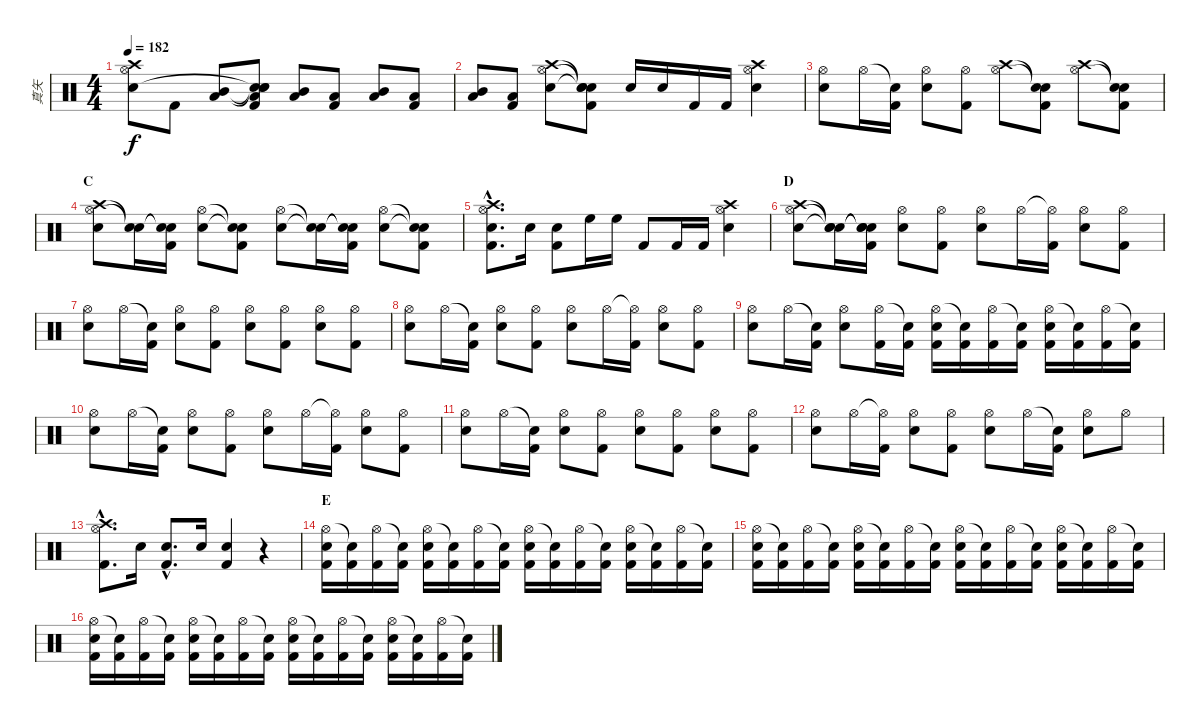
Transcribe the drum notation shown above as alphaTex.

\track ("真矢" "真矢") {instrument percussion}
\staff {score}
\articulation defaults
\ts (4 4)
\tempo 182
\clef neutral
\ks c
("Crash high (hit)" "Hi-Hat (open)" "Electric Snare (hit)").8{dy f} "Kick (hit) 2".8 ("Mid Tom (hit)" "Low Tom (hit)").8 ("Snare (hit)"{t} "Snare (hit)"{t} "Snare (hit)"{t} "Low Tom (hit)" "Kick (hit) 2").8 ("Mid Tom (hit)" "Low Tom (hit)").8 ("Low Tom (hit)" "Kick (hit) 2").8 ("Mid Tom (hit)" "Low Tom (hit)").8 ("Low Tom (hit)" "Kick (hit) 2").8 |
("Mid Tom (hit)" "Low Tom (hit)").8 ("Low Tom (hit)" "Kick (hit) 2").8 ("Crash high (hit)" "Hi-Hat (open)" "Electric Snare (hit)").8 ("Snare (hit)"{t} "Snare (hit)"{t} "Snare (hit)"{t} "Kick (hit) 2").8 "Electric Snare (hit)".16 "Electric Snare (hit)".16 "Kick (hit) 2".16 "Kick (hit) 2".16 ("Crash high (hit)" "Hi-Hat (open)" "Electric Snare (hit)").4 |
("Hi-Hat (open)" "Electric Snare (hit)").8 "Hi-Hat (open)".16 ("Snare (hit)"{t} "Kick (hit) 2").16 ("Hi-Hat (open)" "Electric Snare (hit)").8 ("Hi-Hat (open)" "Kick (hit) 2").8 ("Crash high (hit)" "Hi-Hat (open)").8 ("Snare (hit)"{t} "Snare (hit)"{t} "Kick (hit) 2").8 ("Crash high (hit)" "Hi-Hat (open)").8 ("Snare (hit)"{t} "Snare (hit)"{t} "Kick (hit) 2").8 |
\section ("" "C")
("Crash high (hit)" "Hi-Hat (open)" "Electric Snare (hit)").8 ("Snare (hit)"{t} "Snare (hit)"{t}).16 ("Snare (hit)"{t} "Snare (hit)"{t} "Kick (hit) 2").16 ("Hi-Hat (open)" "Electric Snare (hit)").8 ("Snare (hit)"{t} "Snare (hit)"{t} "Kick (hit) 2").8 ("Hi-Hat (open)" "Electric Snare (hit)").8 ("Snare (hit)"{t} "Snare (hit)"{t}).16 ("Snare (hit)"{t} "Snare (hit)"{t} "Kick (hit) 2").16 ("Hi-Hat (open)" "Electric Snare (hit)").8 ("Snare (hit)"{t} "Snare (hit)"{t} "Kick (hit) 2").8 |
("Crash high (hit)"{hac} "Hi-Hat (open)"{hac} "Electric Snare (hit)"{hac} "Kick (hit) 2"{hac}).8{d} "Electric Snare (hit)".16 ("Electric Snare (hit)" "Kick (hit) 2").8 "High Floor Tom (hit)".16 "High Floor Tom (hit)".16 "Kick (hit) 2".8 "Kick (hit) 2".16 "Kick (hit) 2".16 ("Crash high (hit)" "Hi-Hat (open)" "Electric Snare (hit)").4 |
\section ("" "D")
("Crash high (hit)" "Hi-Hat (open)" "Electric Snare (hit)").8 ("Snare (hit)"{t} "Snare (hit)"{t} "Snare (hit)"{t}).16 ("Snare (hit)"{t} "Snare (hit)"{t} "Snare (hit)"{t} "Kick (hit) 2").16 ("Hi-Hat (open)" "Electric Snare (hit)").8 ("Hi-Hat (open)" "Kick (hit) 2").8 ("Hi-Hat (open)" "Electric Snare (hit)").8 "Hi-Hat (open)".16 ("Hi-Hat (open)"{t} "Kick (hit) 2").16 ("Hi-Hat (open)" "Electric Snare (hit)").8 ("Hi-Hat (open)" "Kick (hit) 2").8 |
("Hi-Hat (open)" "Electric Snare (hit)").8 "Hi-Hat (open)".16 ("Snare (hit)"{t} "Kick (hit) 2").16 ("Hi-Hat (open)" "Electric Snare (hit)").8 ("Hi-Hat (open)" "Kick (hit) 2").8 ("Hi-Hat (open)" "Electric Snare (hit)").8 ("Hi-Hat (open)" "Kick (hit) 2").8 ("Hi-Hat (open)" "Electric Snare (hit)").8 ("Hi-Hat (open)" "Kick (hit) 2").8 |
("Hi-Hat (open)" "Electric Snare (hit)").8 "Hi-Hat (open)".16 ("Snare (hit)"{t} "Kick (hit) 2").16 ("Hi-Hat (open)" "Electric Snare (hit)").8 ("Hi-Hat (open)" "Kick (hit) 2").8 ("Hi-Hat (open)" "Electric Snare (hit)").8 "Hi-Hat (open)".16 ("Hi-Hat (open)"{t} "Kick (hit) 2").16 ("Hi-Hat (open)" "Electric Snare (hit)").8 ("Hi-Hat (open)" "Kick (hit) 2").8 |
("Hi-Hat (open)" "Electric Snare (hit)").8 "Hi-Hat (open)".16 ("Snare (hit)"{t} "Kick (hit) 2").16 ("Hi-Hat (open)" "Electric Snare (hit)").8 ("Hi-Hat (open)" "Kick (hit) 2").16 ("Snare (hit)"{t} "Kick (hit) 2").16 ("Hi-Hat (open)" "Electric Snare (hit)" "Kick (hit) 2").16 ("Snare (hit)"{t} "Kick (hit) 2").16 ("Hi-Hat (open)" "Kick (hit) 2").16 ("Snare (hit)"{t} "Kick (hit) 2").16 ("Hi-Hat (open)" "Electric Snare (hit)" "Kick (hit) 2").16 ("Snare (hit)"{t} "Kick (hit) 2").16 ("Hi-Hat (open)" "Kick (hit) 2").16 ("Snare (hit)"{t} "Kick (hit) 2").16 |
("Hi-Hat (open)" "Electric Snare (hit)").8 "Hi-Hat (open)".16 ("Snare (hit)"{t} "Kick (hit) 2").16 ("Hi-Hat (open)" "Electric Snare (hit)").8 ("Hi-Hat (open)" "Kick (hit) 2").8 ("Hi-Hat (open)" "Electric Snare (hit)").8 "Hi-Hat (open)".16 ("Hi-Hat (open)"{t} "Kick (hit) 2").16 ("Hi-Hat (open)" "Electric Snare (hit)").8 ("Hi-Hat (open)" "Kick (hit) 2").8 |
("Hi-Hat (open)" "Electric Snare (hit)").8 "Hi-Hat (open)".16 ("Snare (hit)"{t} "Kick (hit) 2").16 ("Hi-Hat (open)" "Electric Snare (hit)").8 ("Hi-Hat (open)" "Kick (hit) 2").8 ("Hi-Hat (open)" "Electric Snare (hit)").8 ("Hi-Hat (open)" "Kick (hit) 2").8 ("Hi-Hat (open)" "Electric Snare (hit)").8 ("Hi-Hat (open)" "Kick (hit) 2").8 |
("Hi-Hat (open)" "Electric Snare (hit)").8 "Hi-Hat (open)".16 ("Hi-Hat (open)"{t} "Kick (hit) 2").16 ("Hi-Hat (open)" "Electric Snare (hit)").8 ("Hi-Hat (open)" "Kick (hit) 2").8 ("Hi-Hat (open)" "Electric Snare (hit)").8 "Hi-Hat (open)".16 ("Snare (hit)"{t} "Kick (hit) 2").16 ("Hi-Hat (open)" "Electric Snare (hit)").8 "Hi-Hat (open)".8 |
("Crash high (hit)"{hac} "Hi-Hat (open)"{hac} "Kick (hit) 2"{hac}).8{d} "Electric Snare (hit)".16 ("Electric Snare (hit)"{hac} "Kick (hit) 2"{hac}).8{d} "Electric Snare (hit)".16 ("Electric Snare (hit)" "Kick (hit) 2").4 r.4 |
\section ("" "E")
("Hi-Hat (open)" "Electric Snare (hit)" "Kick (hit) 2").16 ("Snare (hit)"{t} "Kick (hit) 2").16 ("Hi-Hat (open)" "Kick (hit) 2").16 ("Snare (hit)"{t} "Kick (hit) 2").16 ("Hi-Hat (open)" "Electric Snare (hit)" "Kick (hit) 2").16 ("Snare (hit)"{t} "Kick (hit) 2").16 ("Hi-Hat (open)" "Kick (hit) 2").16 ("Snare (hit)"{t} "Kick (hit) 2").16 ("Hi-Hat (open)" "Electric Snare (hit)" "Kick (hit) 2").16 ("Snare (hit)"{t} "Kick (hit) 2").16 ("Hi-Hat (open)" "Kick (hit) 2").16 ("Snare (hit)"{t} "Kick (hit) 2").16 ("Hi-Hat (open)" "Electric Snare (hit)" "Kick (hit) 2").16 ("Snare (hit)"{t} "Kick (hit) 2").16 ("Hi-Hat (open)" "Kick (hit) 2").16 ("Snare (hit)"{t} "Kick (hit) 2").16 |
("Hi-Hat (open)" "Electric Snare (hit)" "Kick (hit) 2").16 ("Snare (hit)"{t} "Kick (hit) 2").16 ("Hi-Hat (open)" "Kick (hit) 2").16 ("Snare (hit)"{t} "Kick (hit) 2").16 ("Hi-Hat (open)" "Electric Snare (hit)" "Kick (hit) 2").16 ("Snare (hit)"{t} "Kick (hit) 2").16 ("Hi-Hat (open)" "Kick (hit) 2").16 ("Snare (hit)"{t} "Kick (hit) 2").16 ("Hi-Hat (open)" "Electric Snare (hit)" "Kick (hit) 2").16 ("Snare (hit)"{t} "Kick (hit) 2").16 ("Hi-Hat (open)" "Kick (hit) 2").16 ("Snare (hit)"{t} "Kick (hit) 2").16 ("Hi-Hat (open)" "Electric Snare (hit)" "Kick (hit) 2").16 ("Snare (hit)"{t} "Kick (hit) 2").16 ("Hi-Hat (open)" "Kick (hit) 2").16 ("Snare (hit)"{t} "Kick (hit) 2").16 |
("Hi-Hat (open)" "Electric Snare (hit)" "Kick (hit) 2").16 ("Snare (hit)"{t} "Kick (hit) 2").16 ("Hi-Hat (open)" "Kick (hit) 2").16 ("Snare (hit)"{t} "Kick (hit) 2").16 ("Hi-Hat (open)" "Electric Snare (hit)" "Kick (hit) 2").16 ("Snare (hit)"{t} "Kick (hit) 2").16 ("Hi-Hat (open)" "Kick (hit) 2").16 ("Snare (hit)"{t} "Kick (hit) 2").16 ("Hi-Hat (open)" "Electric Snare (hit)" "Kick (hit) 2").16 ("Snare (hit)"{t} "Kick (hit) 2").16 ("Hi-Hat (open)" "Kick (hit) 2").16 ("Snare (hit)"{t} "Kick (hit) 2").16 ("Hi-Hat (open)" "Electric Snare (hit)" "Kick (hit) 2").16 ("Snare (hit)"{t} "Kick (hit) 2").16 ("Hi-Hat (open)" "Kick (hit) 2").16 ("Snare (hit)"{t} "Kick (hit) 2").16
